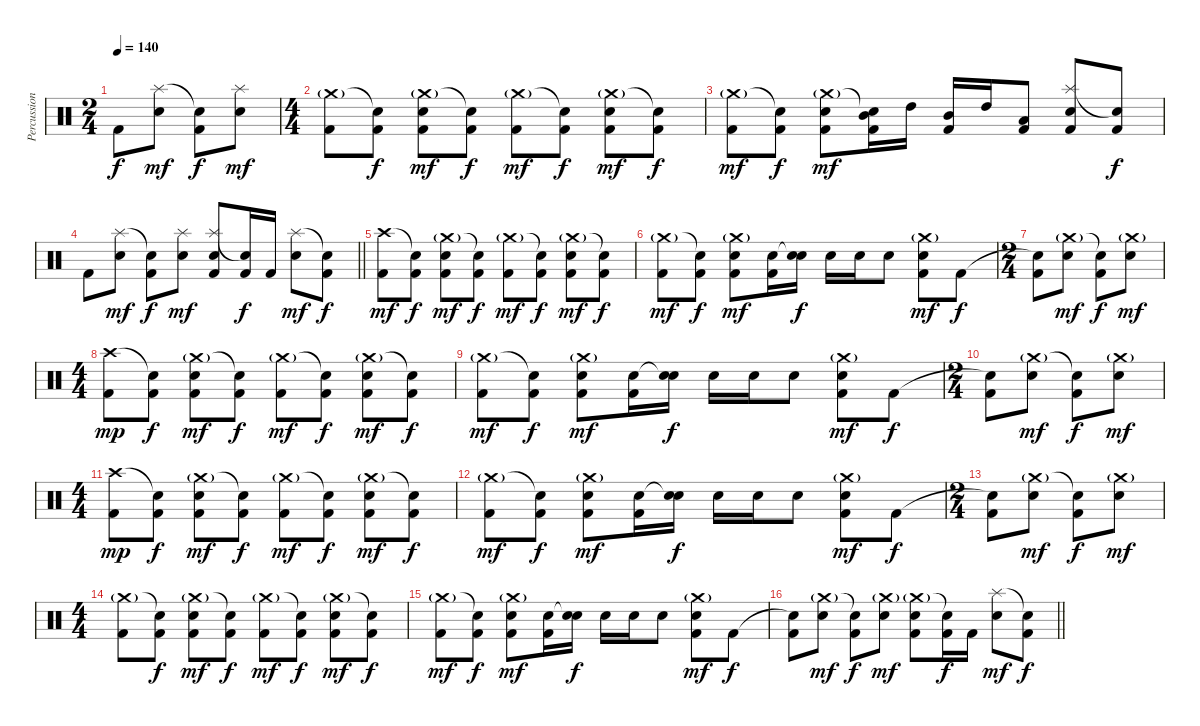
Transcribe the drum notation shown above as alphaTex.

\track ("Percussion" "Percussion") {instrument percussion}
\staff {score}
\articulation defaults
\ts (2 4)
\tempo 140
\clef neutral
\ks c "Kick (hit) 2".8{dy f}
("Splash (hit)" "Electric Snare (hit)").8{dy mf} ("Snare (hit)"{t} "Kick (hit) 2").8{dy f} ("Splash (hit)" "Electric Snare (hit)").8{dy mf} |
\ts (4 4)
("Crash medium (hit)"{g} "Kick (hit) 2").8 ("Snare (hit)"{t} "Kick (hit) 2").8{dy f} ("Crash medium (hit)"{g} "Electric Snare (hit)" "Kick (hit) 2").8{dy mf} ("Snare (hit)"{t} "Kick (hit) 2").8{dy f} ("Crash medium (hit)"{g} "Kick (hit) 2").8{dy mf} ("Snare (hit)"{t} "Kick (hit) 2").8{dy f} ("Crash medium (hit)"{g} "Electric Snare (hit)" "Kick (hit) 2").8{dy mf} ("Snare (hit)"{t} "Kick (hit) 2").8{dy f} |
("Crash medium (hit)"{g} "Kick (hit) 2").8{dy mf} ("Snare (hit)"{t} "Kick (hit) 2").8{dy f} ("Crash medium (hit)"{g} "Electric Snare (hit)" "Kick (hit) 2").8{dy mf} ("Snare (hit)"{t} "Mid Tom (hit)" "Kick (hit) 2").16 "High Tom (hit)".16 ("Mid Tom (hit)" "Kick (hit) 2").16 "High Tom (hit)".16 ("Low Tom (hit)" "Kick (hit) 2").8 ("Splash (hit)" "Electric Snare (hit)" "Kick (hit) 2").8 ("Snare (hit)"{t} "Kick (hit) 2").8{dy f} |
\barLineRight lightlight "Kick (hit) 2".8
("Splash (hit)" "Electric Snare (hit)").8{dy mf} ("Snare (hit)"{t} "Kick (hit) 2").8{dy f} ("Splash (hit)" "Electric Snare (hit)").8{dy mf} ("Splash (hit)" "Electric Snare (hit)" "Kick (hit) 2").8 ("Snare (hit)"{t} "Kick (hit) 2").16{dy f} "Kick (hit) 2".16 ("Splash (hit)" "Electric Snare (hit)").8{dy mf} ("Snare (hit)"{t} "Kick (hit) 2").8{dy f} |
("Crash high (hit)" "Kick (hit) 2").8{dy mf} ("Snare (hit)"{t} "Kick (hit) 2").8{dy f} ("Crash medium (hit)"{g} "Electric Snare (hit)" "Kick (hit) 2").8{dy mf} ("Snare (hit)"{t} "Kick (hit) 2").8{dy f} ("Crash medium (hit)"{g} "Kick (hit) 2").8{dy mf} ("Snare (hit)"{t} "Kick (hit) 2").8{dy f} ("Crash medium (hit)"{g} "Electric Snare (hit)" "Kick (hit) 2").8{dy mf} ("Snare (hit)"{t} "Kick (hit) 2").8{dy f} |
("Crash medium (hit)"{g} "Kick (hit) 2").8{dy mf} ("Snare (hit)"{t} "Kick (hit) 2").8{dy f} ("Crash medium (hit)"{g} "Electric Snare (hit)" "Kick (hit) 2").8{dy mf} ("Electric Snare (hit)" "Kick (hit) 2").16 ("Snare (hit)"{t} "Electric Snare (hit)").16{dy f} "Electric Snare (hit)".16 "Electric Snare (hit)".16 "Electric Snare (hit)".8 ("Crash medium (hit)"{g} "Electric Snare (hit)" "Kick (hit) 2").8{dy mf} "Kick (hit) 2".8{dy f} |
\ts (2 4)
("Snare (hit)"{t} "Kick (hit) 2").8 ("Crash medium (hit)"{g} "Electric Snare (hit)").8{dy mf} ("Snare (hit)"{t} "Kick (hit) 2").8{dy f} ("Crash medium (hit)"{g} "Electric Snare (hit)").8{dy mf} |
\ts (4 4)
("Crash high (hit)" "Kick (hit) 2").8{dy mp} ("Snare (hit)"{t} "Kick (hit) 2").8{dy f} ("Crash medium (hit)"{g} "Electric Snare (hit)" "Kick (hit) 2").8{dy mf} ("Snare (hit)"{t} "Kick (hit) 2").8{dy f} ("Crash medium (hit)"{g} "Kick (hit) 2").8{dy mf} ("Snare (hit)"{t} "Kick (hit) 2").8{dy f} ("Crash medium (hit)"{g} "Electric Snare (hit)" "Kick (hit) 2").8{dy mf} ("Snare (hit)"{t} "Kick (hit) 2").8{dy f} |
("Crash medium (hit)"{g} "Kick (hit) 2").8{dy mf} ("Snare (hit)"{t} "Kick (hit) 2").8{dy f} ("Crash medium (hit)"{g} "Electric Snare (hit)" "Kick (hit) 2").8{dy mf} ("Electric Snare (hit)" "Kick (hit) 2").16 ("Snare (hit)"{t} "Electric Snare (hit)").16{dy f} "Electric Snare (hit)".16 "Electric Snare (hit)".16 "Electric Snare (hit)".8 ("Crash medium (hit)"{g} "Electric Snare (hit)" "Kick (hit) 2").8{dy mf} "Kick (hit) 2".8{dy f} |
\ts (2 4)
("Snare (hit)"{t} "Kick (hit) 2").8 ("Crash medium (hit)"{g} "Electric Snare (hit)").8{dy mf} ("Snare (hit)"{t} "Kick (hit) 2").8{dy f} ("Crash medium (hit)"{g} "Electric Snare (hit)").8{dy mf} |
\ts (4 4)
("Crash high (hit)" "Kick (hit) 2").8{dy mp} ("Snare (hit)"{t} "Kick (hit) 2").8{dy f} ("Crash medium (hit)"{g} "Electric Snare (hit)" "Kick (hit) 2").8{dy mf} ("Snare (hit)"{t} "Kick (hit) 2").8{dy f} ("Crash medium (hit)"{g} "Kick (hit) 2").8{dy mf} ("Snare (hit)"{t} "Kick (hit) 2").8{dy f} ("Crash medium (hit)"{g} "Electric Snare (hit)" "Kick (hit) 2").8{dy mf} ("Snare (hit)"{t} "Kick (hit) 2").8{dy f} |
("Crash medium (hit)"{g} "Kick (hit) 2").8{dy mf} ("Snare (hit)"{t} "Kick (hit) 2").8{dy f} ("Crash medium (hit)"{g} "Electric Snare (hit)" "Kick (hit) 2").8{dy mf} ("Electric Snare (hit)" "Kick (hit) 2").16 ("Snare (hit)"{t} "Electric Snare (hit)").16{dy f} "Electric Snare (hit)".16 "Electric Snare (hit)".16 "Electric Snare (hit)".8 ("Crash medium (hit)"{g} "Electric Snare (hit)" "Kick (hit) 2").8{dy mf} "Kick (hit) 2".8{dy f} |
\ts (2 4)
("Snare (hit)"{t} "Kick (hit) 2").8 ("Crash medium (hit)"{g} "Electric Snare (hit)").8{dy mf} ("Snare (hit)"{t} "Kick (hit) 2").8{dy f} ("Crash medium (hit)"{g} "Electric Snare (hit)").8{dy mf} |
\ts (4 4)
("Crash medium (hit)"{g} "Kick (hit) 2").8 ("Snare (hit)"{t} "Kick (hit) 2").8{dy f} ("Crash medium (hit)"{g} "Electric Snare (hit)" "Kick (hit) 2").8{dy mf} ("Snare (hit)"{t} "Kick (hit) 2").8{dy f} ("Crash medium (hit)"{g} "Kick (hit) 2").8{dy mf} ("Snare (hit)"{t} "Kick (hit) 2").8{dy f} ("Crash medium (hit)"{g} "Electric Snare (hit)" "Kick (hit) 2").8{dy mf} ("Snare (hit)"{t} "Kick (hit) 2").8{dy f} |
("Crash medium (hit)"{g} "Kick (hit) 2").8{dy mf} ("Snare (hit)"{t} "Kick (hit) 2").8{dy f} ("Crash medium (hit)"{g} "Electric Snare (hit)" "Kick (hit) 2").8{dy mf} ("Electric Snare (hit)" "Kick (hit) 2").16 ("Snare (hit)"{t} "Electric Snare (hit)").16{dy f} "Electric Snare (hit)".16 "Electric Snare (hit)".16 "Electric Snare (hit)".8 ("Crash medium (hit)"{g} "Electric Snare (hit)" "Kick (hit) 2").8{dy mf} "Kick (hit) 2".8{dy f} |
\barLineRight lightlight
("Snare (hit)"{t} "Kick (hit) 2").8 ("Crash medium (hit)"{g} "Electric Snare (hit)").8{dy mf} ("Snare (hit)"{t} "Kick (hit) 2").8{dy f} ("Crash medium (hit)"{g} "Electric Snare (hit)").8{dy mf} ("Crash medium (hit)"{g} "Electric Snare (hit)" "Kick (hit) 2").8 ("Snare (hit)"{t} "Kick (hit) 2").16{dy f} "Kick (hit) 2".16 ("Splash (hit)" "Electric Snare (hit)").8{dy mf} ("Snare (hit)"{t} "Kick (hit) 2").8{dy f}
